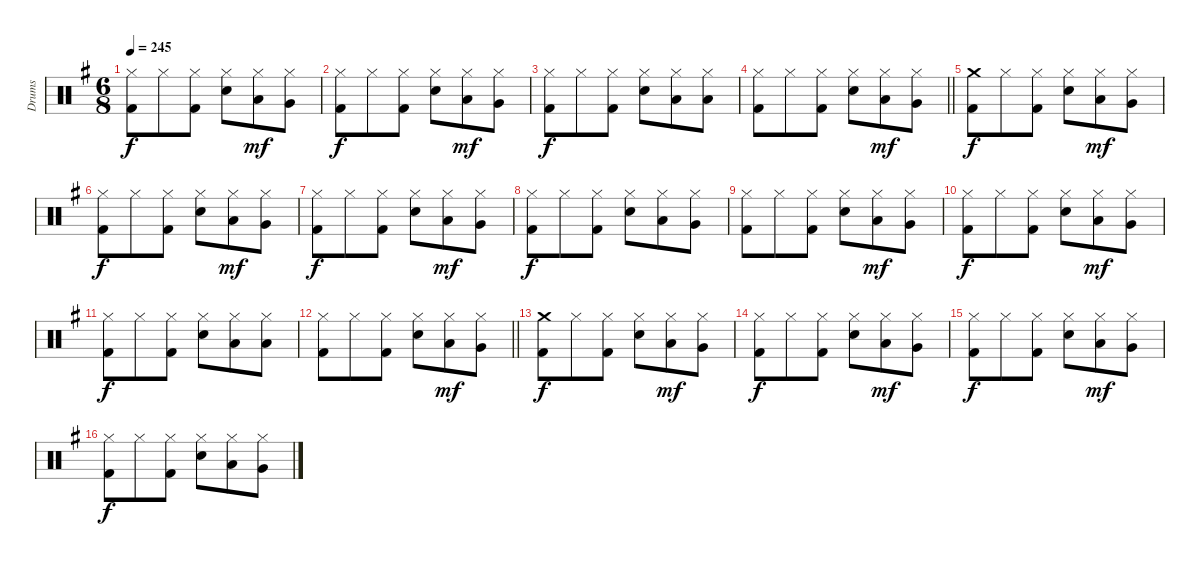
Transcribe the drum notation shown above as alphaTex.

\track ("Drums" "Drums") {instrument percussion}
\staff {score}
\articulation defaults
\ts (6 8)
\tempo 245
\clef neutral
\ks eminor
("Hi-Hat (closed)" "Kick (hit) 2").8{dy f} "Hi-Hat (closed)".8 ("Hi-Hat (closed)" "Kick (hit) 2").8 ("Hi-Hat (closed)" "Electric Snare (hit)").8 ("Hi-Hat (closed)" "Low Tom (hit)").8{dy mf} ("Hi-Hat (closed)" "Very Low Tom (hit)").8 |
("Hi-Hat (closed)" "Kick (hit) 2").8{dy f} "Hi-Hat (closed)".8 ("Hi-Hat (closed)" "Kick (hit) 2").8 ("Hi-Hat (closed)" "Electric Snare (hit)").8 ("Hi-Hat (closed)" "Low Tom (hit)").8{dy mf} ("Hi-Hat (closed)" "Very Low Tom (hit)").8 |
("Hi-Hat (closed)" "Kick (hit) 2").8{dy f} "Hi-Hat (closed)".8 ("Hi-Hat (closed)" "Kick (hit) 2").8 ("Hi-Hat (closed)" "Electric Snare (hit)").8 ("Hi-Hat (closed)" "Low Tom (hit)").8 ("Hi-Hat (closed)" "Low Floor Tom (hit)").8 |
\barLineRight lightlight
("Hi-Hat (closed)" "Kick (hit) 2").8 "Hi-Hat (closed)".8 ("Hi-Hat (closed)" "Kick (hit) 2").8 ("Hi-Hat (closed)" "Electric Snare (hit)").8 ("Hi-Hat (closed)" "Low Tom (hit)").8{dy mf} ("Hi-Hat (closed)" "Very Low Tom (hit)").8 |
\section ("" "")
("Crash medium (hit)" "Kick (hit) 2").8{dy f} "Hi-Hat (closed)".8 ("Hi-Hat (closed)" "Kick (hit) 2").8 ("Hi-Hat (closed)" "Electric Snare (hit)").8 ("Hi-Hat (closed)" "Low Tom (hit)").8{dy mf} ("Hi-Hat (closed)" "Very Low Tom (hit)").8 |
("Hi-Hat (closed)" "Kick (hit) 2").8{dy f} "Hi-Hat (closed)".8 ("Hi-Hat (closed)" "Kick (hit) 2").8 ("Hi-Hat (closed)" "Electric Snare (hit)").8 ("Hi-Hat (closed)" "Low Tom (hit)").8{dy mf} ("Hi-Hat (closed)" "Very Low Tom (hit)").8 |
("Hi-Hat (closed)" "Kick (hit) 2").8{dy f} "Hi-Hat (closed)".8 ("Hi-Hat (closed)" "Kick (hit) 2").8 ("Hi-Hat (closed)" "Electric Snare (hit)").8 ("Hi-Hat (closed)" "Low Tom (hit)").8{dy mf} ("Hi-Hat (closed)" "Very Low Tom (hit)").8 |
("Hi-Hat (closed)" "Kick (hit) 2").8{dy f} "Hi-Hat (closed)".8 ("Hi-Hat (closed)" "Kick (hit) 2").8 ("Hi-Hat (closed)" "Electric Snare (hit)").8 ("Hi-Hat (closed)" "Low Tom (hit)").8 ("Hi-Hat (closed)" "Very Low Tom (hit)").8 |
("Hi-Hat (closed)" "Kick (hit) 2").8 "Hi-Hat (closed)".8 ("Hi-Hat (closed)" "Kick (hit) 2").8 ("Hi-Hat (closed)" "Electric Snare (hit)").8 ("Hi-Hat (closed)" "Low Tom (hit)").8{dy mf} ("Hi-Hat (closed)" "Very Low Tom (hit)").8 |
("Hi-Hat (closed)" "Kick (hit) 2").8{dy f} "Hi-Hat (closed)".8 ("Hi-Hat (closed)" "Kick (hit) 2").8 ("Hi-Hat (closed)" "Electric Snare (hit)").8 ("Hi-Hat (closed)" "Low Tom (hit)").8{dy mf} ("Hi-Hat (closed)" "Very Low Tom (hit)").8 |
("Hi-Hat (closed)" "Kick (hit) 2").8{dy f} "Hi-Hat (closed)".8 ("Hi-Hat (closed)" "Kick (hit) 2").8 ("Hi-Hat (closed)" "Electric Snare (hit)").8 ("Hi-Hat (closed)" "Low Tom (hit)").8 ("Hi-Hat (closed)" "Low Floor Tom (hit)").8 |
\barLineRight lightlight
("Hi-Hat (closed)" "Kick (hit) 2").8 "Hi-Hat (closed)".8 ("Hi-Hat (closed)" "Kick (hit) 2").8 ("Hi-Hat (closed)" "Electric Snare (hit)").8 ("Hi-Hat (closed)" "Low Tom (hit)").8{dy mf} ("Hi-Hat (closed)" "Very Low Tom (hit)").8 |
\section ("" "")
("Crash medium (hit)" "Kick (hit) 2").8{dy f} "Hi-Hat (closed)".8 ("Hi-Hat (closed)" "Kick (hit) 2").8 ("Hi-Hat (closed)" "Electric Snare (hit)").8 ("Hi-Hat (closed)" "Low Tom (hit)").8{dy mf} ("Hi-Hat (closed)" "Very Low Tom (hit)").8 |
("Hi-Hat (closed)" "Kick (hit) 2").8{dy f} "Hi-Hat (closed)".8 ("Hi-Hat (closed)" "Kick (hit) 2").8 ("Hi-Hat (closed)" "Electric Snare (hit)").8 ("Hi-Hat (closed)" "Low Tom (hit)").8{dy mf} ("Hi-Hat (closed)" "Very Low Tom (hit)").8 |
("Hi-Hat (closed)" "Kick (hit) 2").8{dy f} "Hi-Hat (closed)".8 ("Hi-Hat (closed)" "Kick (hit) 2").8 ("Hi-Hat (closed)" "Electric Snare (hit)").8 ("Hi-Hat (closed)" "Low Tom (hit)").8{dy mf} ("Hi-Hat (closed)" "Very Low Tom (hit)").8 |
("Hi-Hat (closed)" "Kick (hit) 2").8{dy f} "Hi-Hat (closed)".8 ("Hi-Hat (closed)" "Kick (hit) 2").8 ("Hi-Hat (closed)" "Electric Snare (hit)").8 ("Hi-Hat (closed)" "Low Tom (hit)").8 ("Hi-Hat (closed)" "Very Low Tom (hit)").8
